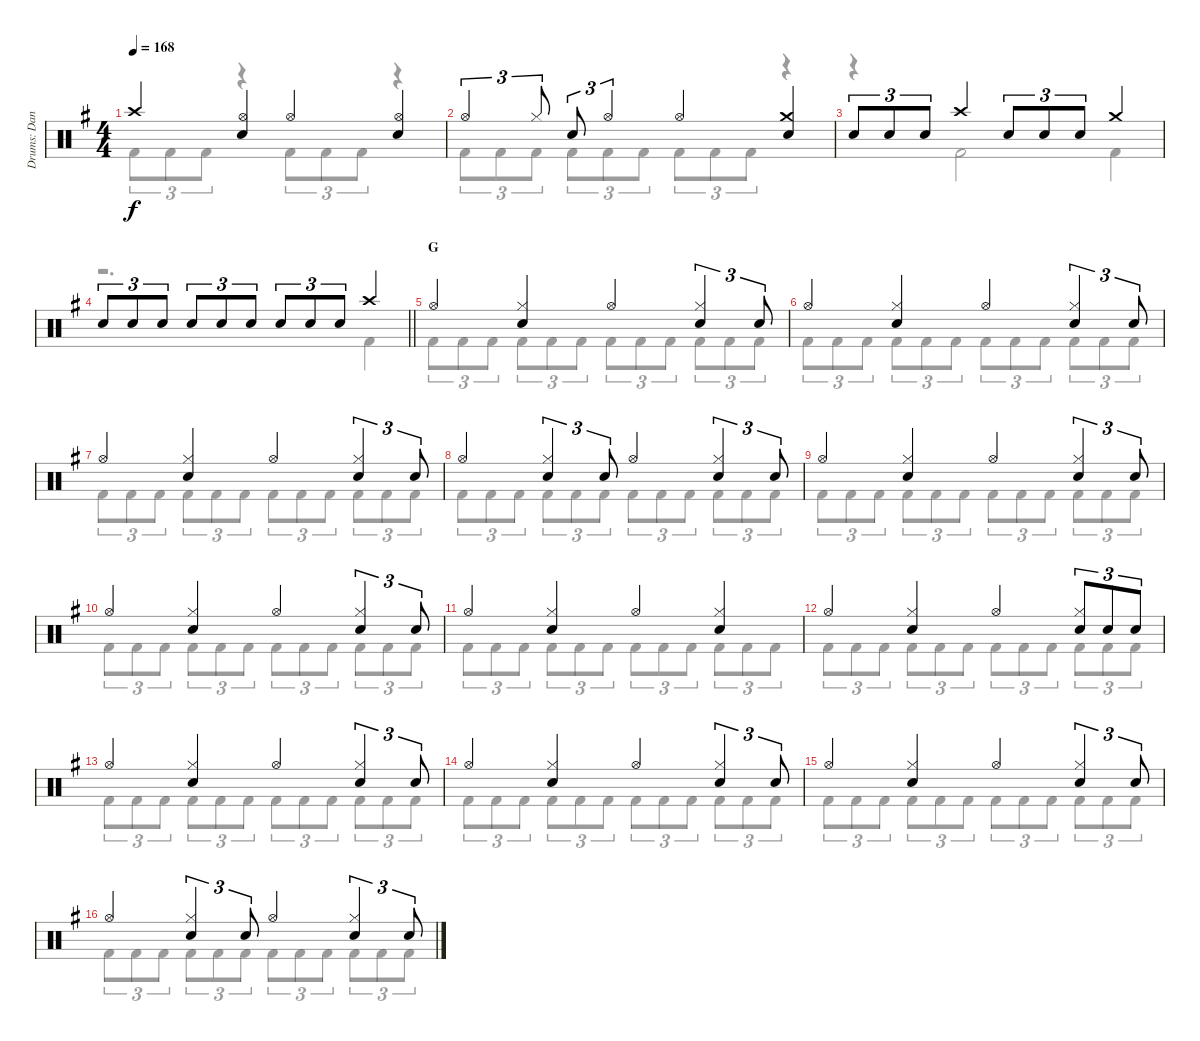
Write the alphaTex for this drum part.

\track ("Drums: Dana" "Drums: Dan") {instrument percussion}
\staff {score}
\articulation defaults
\voice
\ts (4 4)
\tempo 168
\clef neutral
\ks g "Crash high (hit)".4{dy f}
("Hi-Hat (open)" "Snare (hit) 2").4 "Hi-Hat (open)".4 ("Hi-Hat (open)" "Snare (hit) 2").4 |
"Hi-Hat (open)".4{tu (3 2)} "Hi-Hat (closed)".8{tu (3 2)} "Snare (hit) 2".8{tu (3 2)} "Hi-Hat (open)".4{tu (3 2)} "Hi-Hat (open)".4 ("Crash medium (hit)" "Snare (hit) 2").4 |
"Snare (hit) 2".8{tu (3 2)} "Snare (hit) 2".8{tu (3 2)} "Snare (hit) 2".8{tu (3 2)} "Crash high (hit)".4 "Snare (hit) 2".8{tu (3 2)} "Snare (hit) 2".8{tu (3 2)} "Snare (hit) 2".8{tu (3 2)} "Crash medium (hit)".4 |
\barLineRight lightlight "Snare (hit) 2".8{tu (3 2)} "Snare (hit) 2".8{tu (3 2)} "Snare (hit) 2".8{tu (3 2)} "Snare (hit) 2".8{tu (3 2)} "Snare (hit) 2".8{tu (3 2)} "Snare (hit) 2".8{tu (3 2)} "Snare (hit) 2".8{tu (3 2)} "Snare (hit) 2".8{tu (3 2)} "Snare (hit) 2".8{tu (3 2)} "Crash high (hit)".4
|
\section ("" "G")
"Hi-Hat (open)".4 ("Hi-Hat (closed)" "Snare (hit) 2").4 "Hi-Hat (open)".4 ("Hi-Hat (closed)" "Snare (hit) 2").4{tu (3 2)} "Snare (hit) 2".8{tu (3 2)} |
"Hi-Hat (open)".4 ("Hi-Hat (closed)" "Snare (hit) 2").4 "Hi-Hat (open)".4 ("Hi-Hat (closed)" "Snare (hit) 2").4{tu (3 2)} "Snare (hit) 2".8{tu (3 2)} |
"Hi-Hat (open)".4 ("Hi-Hat (closed)" "Snare (hit) 2").4 "Hi-Hat (open)".4 ("Hi-Hat (closed)" "Snare (hit) 2").4{tu (3 2)} "Snare (hit) 2".8{tu (3 2)} |
"Hi-Hat (open)".4 ("Hi-Hat (closed)" "Snare (hit) 2").4{tu (3 2)} "Snare (hit) 2".8{tu (3 2)} "Hi-Hat (open)".4 ("Hi-Hat (closed)" "Snare (hit) 2").4{tu (3 2)} "Snare (hit) 2".8{tu (3 2)} |
"Hi-Hat (open)".4 ("Hi-Hat (closed)" "Snare (hit) 2").4 "Hi-Hat (open)".4 ("Hi-Hat (closed)" "Snare (hit) 2").4{tu (3 2)} "Snare (hit) 2".8{tu (3 2)} |
"Hi-Hat (open)".4 ("Hi-Hat (closed)" "Snare (hit) 2").4 "Hi-Hat (open)".4 ("Hi-Hat (closed)" "Snare (hit) 2").4{tu (3 2)} "Snare (hit) 2".8{tu (3 2)} |
"Hi-Hat (open)".4 ("Hi-Hat (closed)" "Snare (hit) 2").4 "Hi-Hat (open)".4 ("Hi-Hat (closed)" "Snare (hit) 2").4 |
"Hi-Hat (open)".4 ("Hi-Hat (closed)" "Snare (hit) 2").4 "Hi-Hat (open)".4 ("Hi-Hat (closed)" "Snare (hit) 2").8{tu (3 2)} "Snare (hit) 2".8{tu (3 2)} "Snare (hit) 2".8{tu (3 2)} |
"Hi-Hat (open)".4 ("Hi-Hat (closed)" "Snare (hit) 2").4 "Hi-Hat (open)".4 ("Hi-Hat (closed)" "Snare (hit) 2").4{tu (3 2)} "Snare (hit) 2".8{tu (3 2)} |
"Hi-Hat (open)".4 ("Hi-Hat (closed)" "Snare (hit) 2").4 "Hi-Hat (open)".4 ("Hi-Hat (closed)" "Snare (hit) 2").4{tu (3 2)} "Snare (hit) 2".8{tu (3 2)} |
"Hi-Hat (open)".4 ("Hi-Hat (closed)" "Snare (hit) 2").4 "Hi-Hat (open)".4 ("Hi-Hat (closed)" "Snare (hit) 2").4{tu (3 2)} "Snare (hit) 2".8{tu (3 2)} |
"Hi-Hat (open)".4 ("Hi-Hat (closed)" "Snare (hit) 2").4{tu (3 2)} "Snare (hit) 2".8{tu (3 2)} "Hi-Hat (open)".4 ("Hi-Hat (closed)" "Snare (hit) 2").4{tu (3 2)} "Snare (hit) 2".8{tu (3 2)}
\voice
\clef neutral
\ottava regular
\simile none
\ks g "Kick (hit) 2".8{tu (3 2) dy f} "Kick (hit) 2".8{tu (3 2)} "Kick (hit) 2".8{tu (3 2)}
r.4 "Kick (hit) 2".8{tu (3 2)} "Kick (hit) 2".8{tu (3 2)} "Kick (hit) 2".8{tu (3 2)} r.4 |
"Kick (hit) 2".8{tu (3 2)} "Kick (hit) 2".8{tu (3 2)} "Kick (hit) 2".8{tu (3 2)} "Kick (hit) 2".8{tu (3 2)} "Kick (hit) 2".8{tu (3 2)} "Kick (hit) 2".8{tu (3 2)} "Kick (hit) 2".8{tu (3 2)} "Kick (hit) 2".8{tu (3 2)} "Kick (hit) 2".8{tu (3 2)} r.4 |
r.4 "Kick (hit) 2".2 "Kick (hit) 2".4 |
\barLineRight lightlight
r.2{d} "Kick (hit) 2".4 |
"Kick (hit) 2".8{tu (3 2)} "Kick (hit) 2".8{tu (3 2)} "Kick (hit) 2".8{tu (3 2)} "Kick (hit) 2".8{tu (3 2)} "Kick (hit) 2".8{tu (3 2)} "Kick (hit) 2".8{tu (3 2)} "Kick (hit) 2".8{tu (3 2)} "Kick (hit) 2".8{tu (3 2)} "Kick (hit) 2".8{tu (3 2)} "Kick (hit) 2".8{tu (3 2)} "Kick (hit) 2".8{tu (3 2)} "Kick (hit) 2".8{tu (3 2)} |
"Kick (hit) 2".8{tu (3 2)} "Kick (hit) 2".8{tu (3 2)} "Kick (hit) 2".8{tu (3 2)} "Kick (hit) 2".8{tu (3 2)} "Kick (hit) 2".8{tu (3 2)} "Kick (hit) 2".8{tu (3 2)} "Kick (hit) 2".8{tu (3 2)} "Kick (hit) 2".8{tu (3 2)} "Kick (hit) 2".8{tu (3 2)} "Kick (hit) 2".8{tu (3 2)} "Kick (hit) 2".8{tu (3 2)} "Kick (hit) 2".8{tu (3 2)} |
"Kick (hit) 2".8{tu (3 2)} "Kick (hit) 2".8{tu (3 2)} "Kick (hit) 2".8{tu (3 2)} "Kick (hit) 2".8{tu (3 2)} "Kick (hit) 2".8{tu (3 2)} "Kick (hit) 2".8{tu (3 2)} "Kick (hit) 2".8{tu (3 2)} "Kick (hit) 2".8{tu (3 2)} "Kick (hit) 2".8{tu (3 2)} "Kick (hit) 2".8{tu (3 2)} "Kick (hit) 2".8{tu (3 2)} "Kick (hit) 2".8{tu (3 2)} |
"Kick (hit) 2".8{tu (3 2)} "Kick (hit) 2".8{tu (3 2)} "Kick (hit) 2".8{tu (3 2)} "Kick (hit) 2".8{tu (3 2)} "Kick (hit) 2".8{tu (3 2)} "Kick (hit) 2".8{tu (3 2)} "Kick (hit) 2".8{tu (3 2)} "Kick (hit) 2".8{tu (3 2)} "Kick (hit) 2".8{tu (3 2)} "Kick (hit) 2".8{tu (3 2)} "Kick (hit) 2".8{tu (3 2)} "Kick (hit) 2".8{tu (3 2)} |
"Kick (hit) 2".8{tu (3 2)} "Kick (hit) 2".8{tu (3 2)} "Kick (hit) 2".8{tu (3 2)} "Kick (hit) 2".8{tu (3 2)} "Kick (hit) 2".8{tu (3 2)} "Kick (hit) 2".8{tu (3 2)} "Kick (hit) 2".8{tu (3 2)} "Kick (hit) 2".8{tu (3 2)} "Kick (hit) 2".8{tu (3 2)} "Kick (hit) 2".8{tu (3 2)} "Kick (hit) 2".8{tu (3 2)} "Kick (hit) 2".8{tu (3 2)} |
"Kick (hit) 2".8{tu (3 2)} "Kick (hit) 2".8{tu (3 2)} "Kick (hit) 2".8{tu (3 2)} "Kick (hit) 2".8{tu (3 2)} "Kick (hit) 2".8{tu (3 2)} "Kick (hit) 2".8{tu (3 2)} "Kick (hit) 2".8{tu (3 2)} "Kick (hit) 2".8{tu (3 2)} "Kick (hit) 2".8{tu (3 2)} "Kick (hit) 2".8{tu (3 2)} "Kick (hit) 2".8{tu (3 2)} "Kick (hit) 2".8{tu (3 2)} |
"Kick (hit) 2".8{tu (3 2)} "Kick (hit) 2".8{tu (3 2)} "Kick (hit) 2".8{tu (3 2)} "Kick (hit) 2".8{tu (3 2)} "Kick (hit) 2".8{tu (3 2)} "Kick (hit) 2".8{tu (3 2)} "Kick (hit) 2".8{tu (3 2)} "Kick (hit) 2".8{tu (3 2)} "Kick (hit) 2".8{tu (3 2)} "Kick (hit) 2".8{tu (3 2)} "Kick (hit) 2".8{tu (3 2)} "Kick (hit) 2".8{tu (3 2)} |
"Kick (hit) 2".8{tu (3 2)} "Kick (hit) 2".8{tu (3 2)} "Kick (hit) 2".8{tu (3 2)} "Kick (hit) 2".8{tu (3 2)} "Kick (hit) 2".8{tu (3 2)} "Kick (hit) 2".8{tu (3 2)} "Kick (hit) 2".8{tu (3 2)} "Kick (hit) 2".8{tu (3 2)} "Kick (hit) 2".8{tu (3 2)} "Kick (hit) 2".8{tu (3 2)} "Kick (hit) 2".8{tu (3 2)} "Kick (hit) 2".8{tu (3 2)} |
"Kick (hit) 2".8{tu (3 2)} "Kick (hit) 2".8{tu (3 2)} "Kick (hit) 2".8{tu (3 2)} "Kick (hit) 2".8{tu (3 2)} "Kick (hit) 2".8{tu (3 2)} "Kick (hit) 2".8{tu (3 2)} "Kick (hit) 2".8{tu (3 2)} "Kick (hit) 2".8{tu (3 2)} "Kick (hit) 2".8{tu (3 2)} "Kick (hit) 2".8{tu (3 2)} "Kick (hit) 2".8{tu (3 2)} "Kick (hit) 2".8{tu (3 2)} |
"Kick (hit) 2".8{tu (3 2)} "Kick (hit) 2".8{tu (3 2)} "Kick (hit) 2".8{tu (3 2)} "Kick (hit) 2".8{tu (3 2)} "Kick (hit) 2".8{tu (3 2)} "Kick (hit) 2".8{tu (3 2)} "Kick (hit) 2".8{tu (3 2)} "Kick (hit) 2".8{tu (3 2)} "Kick (hit) 2".8{tu (3 2)} "Kick (hit) 2".8{tu (3 2)} "Kick (hit) 2".8{tu (3 2)} "Kick (hit) 2".8{tu (3 2)} |
"Kick (hit) 2".8{tu (3 2)} "Kick (hit) 2".8{tu (3 2)} "Kick (hit) 2".8{tu (3 2)} "Kick (hit) 2".8{tu (3 2)} "Kick (hit) 2".8{tu (3 2)} "Kick (hit) 2".8{tu (3 2)} "Kick (hit) 2".8{tu (3 2)} "Kick (hit) 2".8{tu (3 2)} "Kick (hit) 2".8{tu (3 2)} "Kick (hit) 2".8{tu (3 2)} "Kick (hit) 2".8{tu (3 2)} "Kick (hit) 2".8{tu (3 2)} |
"Kick (hit) 2".8{tu (3 2)} "Kick (hit) 2".8{tu (3 2)} "Kick (hit) 2".8{tu (3 2)} "Kick (hit) 2".8{tu (3 2)} "Kick (hit) 2".8{tu (3 2)} "Kick (hit) 2".8{tu (3 2)} "Kick (hit) 2".8{tu (3 2)} "Kick (hit) 2".8{tu (3 2)} "Kick (hit) 2".8{tu (3 2)} "Kick (hit) 2".8{tu (3 2)} "Kick (hit) 2".8{tu (3 2)} "Kick (hit) 2".8{tu (3 2)}
